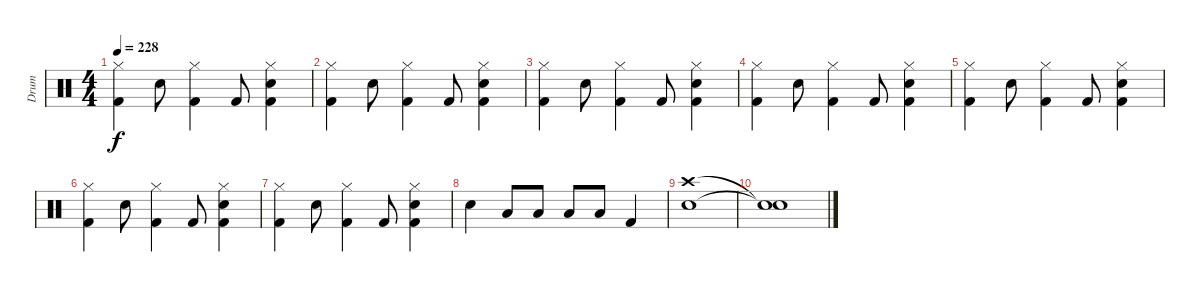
\track ("Drum" "Drum") {instrument percussion}
\staff {score}
\articulation defaults
\ts (4 4)
\tempo 228
\clef neutral
\ks c
("Hi-Hat (closed)" "Kick (hit) 2").4{dy f} "Snare (hit) 2".8 ("Hi-Hat (closed)" "Kick (hit) 2").4 "Kick (hit) 2".8 ("Hi-Hat (closed)" "Snare (hit) 2" "Kick (hit) 2").4 |
("Hi-Hat (closed)" "Kick (hit) 2").4 "Snare (hit) 2".8 ("Hi-Hat (closed)" "Kick (hit) 2").4 "Kick (hit) 2".8 ("Hi-Hat (closed)" "Snare (hit) 2" "Kick (hit) 2").4 |
("Hi-Hat (closed)" "Kick (hit) 2").4 "Snare (hit) 2".8 ("Hi-Hat (closed)" "Kick (hit) 2").4 "Kick (hit) 2".8 ("Hi-Hat (closed)" "Snare (hit) 2" "Kick (hit) 2").4 |
("Hi-Hat (closed)" "Kick (hit) 2").4 "Snare (hit) 2".8 ("Hi-Hat (closed)" "Kick (hit) 2").4 "Kick (hit) 2".8 ("Hi-Hat (closed)" "Snare (hit) 2" "Kick (hit) 2").4 |
("Hi-Hat (closed)" "Kick (hit) 2").4 "Snare (hit) 2".8 ("Hi-Hat (closed)" "Kick (hit) 2").4 "Kick (hit) 2".8 ("Hi-Hat (closed)" "Snare (hit) 2" "Kick (hit) 2").4 |
("Hi-Hat (closed)" "Kick (hit) 2").4 "Snare (hit) 2".8 ("Hi-Hat (closed)" "Kick (hit) 2").4 "Kick (hit) 2".8 ("Hi-Hat (closed)" "Snare (hit) 2" "Kick (hit) 2").4 |
("Hi-Hat (closed)" "Kick (hit) 2").4 "Snare (hit) 2".8 ("Hi-Hat (closed)" "Kick (hit) 2").4 "Kick (hit) 2".8 ("Hi-Hat (closed)" "Snare (hit) 2" "Kick (hit) 2").4 |
"Snare (hit) 2".4 "Low Floor Tom (hit)".8 "Low Floor Tom (hit)".8 "Low Floor Tom (hit)".8 "Low Floor Tom (hit)".8 "Kick (hit) 2".4 |
("Crash high (hit)" "Snare (hit) 2").1 |
("Snare (hit)"{t} "Snare (hit)"{t}).1
